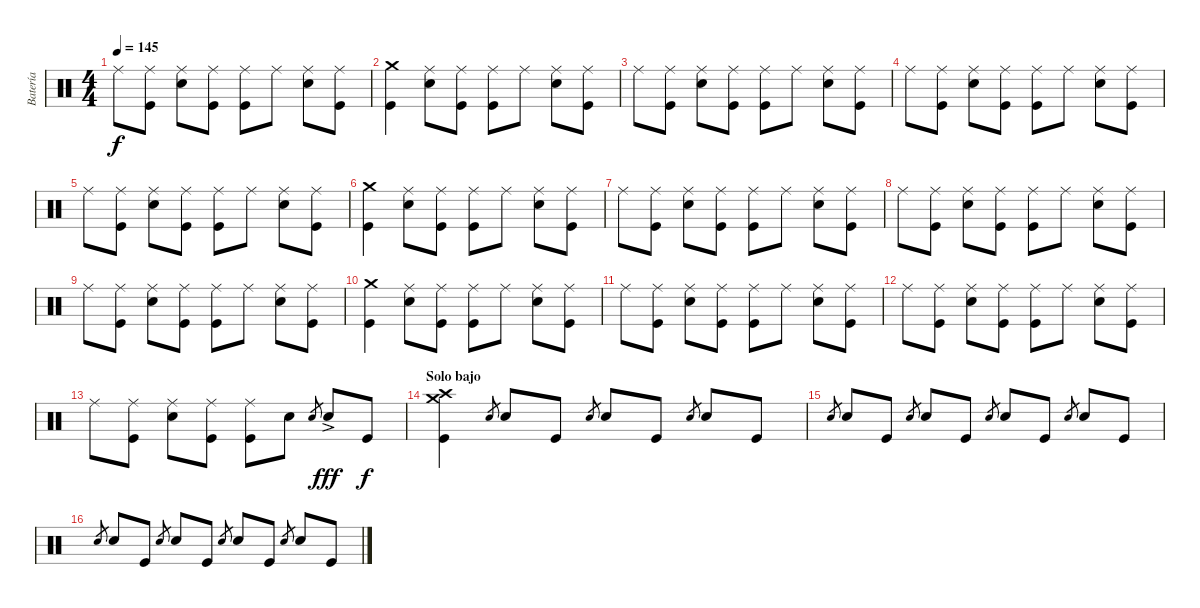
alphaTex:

\track ("Batería" "Batería") {instrument percussion}
\staff {score}
\articulation defaults
\ts (4 4)
\tempo 145
\clef neutral
\ks c "Ride (middle)".8{dy f}
("Kick (hit)" "Ride (middle)").8 ("Electric Snare (hit)" "Ride (middle)").8 ("Kick (hit)" "Ride (middle)").8 ("Kick (hit)" "Ride (middle)").8 "Ride (middle)".8 ("Electric Snare (hit)" "Ride (middle)").8 ("Kick (hit)" "Ride (middle)").8 |
("Kick (hit)" "Crash medium (hit)").4 ("Electric Snare (hit)" "Ride (middle)").8 ("Kick (hit)" "Ride (middle)").8 ("Kick (hit)" "Ride (middle)").8 "Ride (middle)".8 ("Electric Snare (hit)" "Ride (middle)").8 ("Kick (hit)" "Ride (middle)").8 |
"Ride (middle)".8 ("Kick (hit)" "Ride (middle)").8 ("Electric Snare (hit)" "Ride (middle)").8 ("Kick (hit)" "Ride (middle)").8 ("Kick (hit)" "Ride (middle)").8 "Ride (middle)".8 ("Electric Snare (hit)" "Ride (middle)").8 ("Kick (hit)" "Ride (middle)").8 |
"Ride (middle)".8 ("Kick (hit)" "Ride (middle)").8 ("Electric Snare (hit)" "Ride (middle)").8 ("Kick (hit)" "Ride (middle)").8 ("Kick (hit)" "Ride (middle)").8 "Ride (middle)".8 ("Electric Snare (hit)" "Ride (middle)").8 ("Kick (hit)" "Ride (middle)").8 |
"Ride (middle)".8 ("Kick (hit)" "Ride (middle)").8 ("Electric Snare (hit)" "Ride (middle)").8 ("Kick (hit)" "Ride (middle)").8 ("Kick (hit)" "Ride (middle)").8 "Ride (middle)".8 ("Electric Snare (hit)" "Ride (middle)").8 ("Kick (hit)" "Ride (middle)").8 |
("Kick (hit)" "Crash medium (hit)").4 ("Electric Snare (hit)" "Ride (middle)").8 ("Kick (hit)" "Ride (middle)").8 ("Kick (hit)" "Ride (middle)").8 "Ride (middle)".8 ("Electric Snare (hit)" "Ride (middle)").8 ("Kick (hit)" "Ride (middle)").8 |
"Ride (middle)".8 ("Kick (hit)" "Ride (middle)").8 ("Electric Snare (hit)" "Ride (middle)").8 ("Kick (hit)" "Ride (middle)").8 ("Kick (hit)" "Ride (middle)").8 "Ride (middle)".8 ("Electric Snare (hit)" "Ride (middle)").8 ("Kick (hit)" "Ride (middle)").8 |
"Ride (middle)".8 ("Kick (hit)" "Ride (middle)").8 ("Electric Snare (hit)" "Ride (middle)").8 ("Kick (hit)" "Ride (middle)").8 ("Kick (hit)" "Ride (middle)").8 "Ride (middle)".8 ("Electric Snare (hit)" "Ride (middle)").8 ("Kick (hit)" "Ride (middle)").8 |
"Ride (middle)".8 ("Kick (hit)" "Ride (middle)").8 ("Electric Snare (hit)" "Ride (middle)").8 ("Kick (hit)" "Ride (middle)").8 ("Kick (hit)" "Ride (middle)").8 "Ride (middle)".8 ("Electric Snare (hit)" "Ride (middle)").8 ("Kick (hit)" "Ride (middle)").8 |
("Kick (hit)" "Crash medium (hit)").4 ("Electric Snare (hit)" "Ride (middle)").8 ("Kick (hit)" "Ride (middle)").8 ("Kick (hit)" "Ride (middle)").8 "Ride (middle)".8 ("Electric Snare (hit)" "Ride (middle)").8 ("Kick (hit)" "Ride (middle)").8 |
"Ride (middle)".8 ("Kick (hit)" "Ride (middle)").8 ("Electric Snare (hit)" "Ride (middle)").8 ("Kick (hit)" "Ride (middle)").8 ("Kick (hit)" "Ride (middle)").8 "Ride (middle)".8 ("Electric Snare (hit)" "Ride (middle)").8 ("Kick (hit)" "Ride (middle)").8 |
"Ride (middle)".8 ("Kick (hit)" "Ride (middle)").8 ("Electric Snare (hit)" "Ride (middle)").8 ("Kick (hit)" "Ride (middle)").8 ("Kick (hit)" "Ride (middle)").8 "Ride (middle)".8 ("Electric Snare (hit)" "Ride (middle)").8 ("Kick (hit)" "Ride (middle)").8 |
"Ride (middle)".8 ("Kick (hit)" "Ride (middle)").8 ("Electric Snare (hit)" "Ride (middle)").8 ("Kick (hit)" "Ride (middle)").8 ("Kick (hit)" "Ride (middle)").8 "Electric Snare (hit)".8 "Electric Snare (hit)".8{gr} "Electric Snare (hit)"{ac}.8{dy fff} "Kick (hit)".8{dy f} |
\section ("" "Solo bajo")
("Kick (hit)" "Crash medium (hit)" "Crash high (hit)").4 "Electric Snare (hit)".8{gr} "Electric Snare (hit)".8 "Kick (hit)".8 "Electric Snare (hit)".8{gr} "Electric Snare (hit)".8 "Kick (hit)".8 "Electric Snare (hit)".8{gr} "Electric Snare (hit)".8 "Kick (hit)".8 |
"Electric Snare (hit)".8{gr} "Electric Snare (hit)".8 "Kick (hit)".8 "Electric Snare (hit)".8{gr} "Electric Snare (hit)".8 "Kick (hit)".8 "Electric Snare (hit)".8{gr} "Electric Snare (hit)".8 "Kick (hit)".8 "Electric Snare (hit)".8{gr} "Electric Snare (hit)".8 "Kick (hit)".8 |
"Electric Snare (hit)".8{gr} "Electric Snare (hit)".8 "Kick (hit)".8 "Electric Snare (hit)".8{gr} "Electric Snare (hit)".8 "Kick (hit)".8 "Electric Snare (hit)".8{gr} "Electric Snare (hit)".8 "Kick (hit)".8 "Electric Snare (hit)".8{gr} "Electric Snare (hit)".8 "Kick (hit)".8
